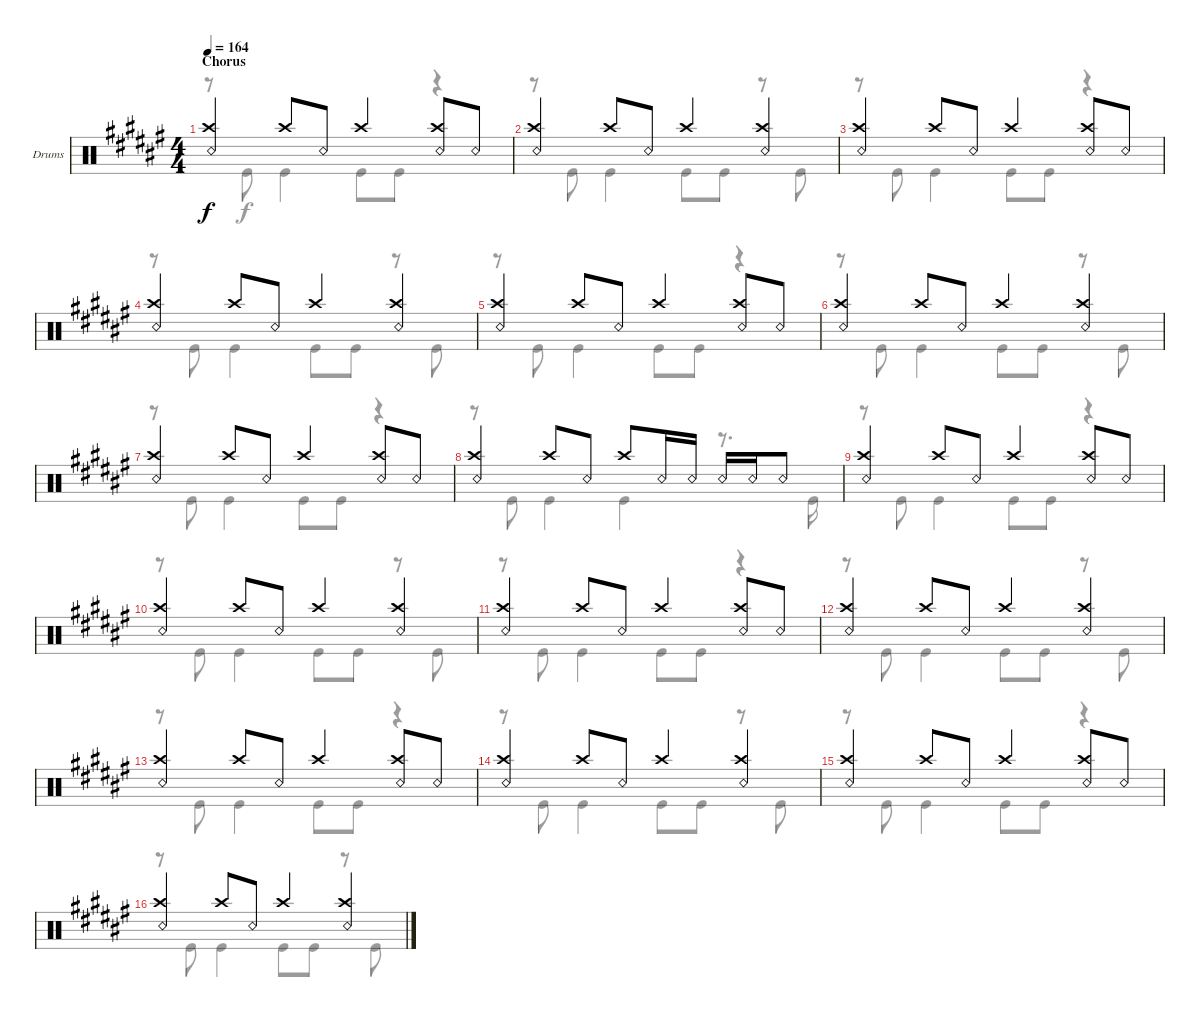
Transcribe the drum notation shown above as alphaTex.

\defaultSystemsLayout 4
\bracketExtendMode groupsimilarinstruments
\firstSystemTrackNameOrientation horizontal
\otherSystemsTrackNameOrientation horizontal
\track ("Drums" "Drums") {instrument percussion}
\staff {score}
\articulation defaults
\voice
\ts (4 4)
\section ("" "Chorus")
\tempo 164
\clef neutral
\ks f#
("Snare (rim shot)" "Crash high (hit)").4{dy f} "Crash high (hit)".8 "Snare (rim shot)".8 "Crash high (hit)".4 ("Snare (rim shot)" "Crash high (hit)").8 "Snare (rim shot)".8 |
("Snare (rim shot)" "Crash high (hit)").4 "Crash high (hit)".8 "Snare (rim shot)".8 "Crash high (hit)".4 ("Snare (rim shot)" "Crash high (hit)").4 |
("Snare (rim shot)" "Crash high (hit)").4 "Crash high (hit)".8 "Snare (rim shot)".8 "Crash high (hit)".4 ("Snare (rim shot)" "Crash high (hit)").8 "Snare (rim shot)".8 |
("Snare (rim shot)" "Crash high (hit)").4 "Crash high (hit)".8 "Snare (rim shot)".8 "Crash high (hit)".4 ("Snare (rim shot)" "Crash high (hit)").4 |
("Snare (rim shot)" "Crash high (hit)").4 "Crash high (hit)".8 "Snare (rim shot)".8 "Crash high (hit)".4 ("Snare (rim shot)" "Crash high (hit)").8 "Snare (rim shot)".8 |
("Snare (rim shot)" "Crash high (hit)").4 "Crash high (hit)".8 "Snare (rim shot)".8 "Crash high (hit)".4 ("Snare (rim shot)" "Crash high (hit)").4 |
("Snare (rim shot)" "Crash high (hit)").4 "Crash high (hit)".8 "Snare (rim shot)".8 "Crash high (hit)".4 ("Snare (rim shot)" "Crash high (hit)").8 "Snare (rim shot)".8 |
("Snare (rim shot)" "Crash high (hit)").4 "Crash high (hit)".8 "Snare (rim shot)".8 "Crash high (hit)".8 "Snare (rim shot)".16 "Snare (rim shot)".16 "Snare (rim shot)".16 "Snare (rim shot)".16 "Snare (rim shot)".8 |
("Snare (rim shot)" "Crash high (hit)").4 "Crash high (hit)".8 "Snare (rim shot)".8 "Crash high (hit)".4 ("Snare (rim shot)" "Crash high (hit)").8 "Snare (rim shot)".8 |
("Snare (rim shot)" "Crash high (hit)").4 "Crash high (hit)".8 "Snare (rim shot)".8 "Crash high (hit)".4 ("Snare (rim shot)" "Crash high (hit)").4 |
("Snare (rim shot)" "Crash high (hit)").4 "Crash high (hit)".8 "Snare (rim shot)".8 "Crash high (hit)".4 ("Snare (rim shot)" "Crash high (hit)").8 "Snare (rim shot)".8 |
("Snare (rim shot)" "Crash high (hit)").4 "Crash high (hit)".8 "Snare (rim shot)".8 "Crash high (hit)".4 ("Snare (rim shot)" "Crash high (hit)").4 |
("Snare (rim shot)" "Crash high (hit)").4 "Crash high (hit)".8 "Snare (rim shot)".8 "Crash high (hit)".4 ("Snare (rim shot)" "Crash high (hit)").8 "Snare (rim shot)".8 |
("Snare (rim shot)" "Crash high (hit)").4 "Crash high (hit)".8 "Snare (rim shot)".8 "Crash high (hit)".4 ("Snare (rim shot)" "Crash high (hit)").4 |
("Snare (rim shot)" "Crash high (hit)").4 "Crash high (hit)".8 "Snare (rim shot)".8 "Crash high (hit)".4 ("Snare (rim shot)" "Crash high (hit)").8 "Snare (rim shot)".8 |
("Snare (rim shot)" "Crash high (hit)").4 "Crash high (hit)".8 "Snare (rim shot)".8 "Crash high (hit)".4 ("Snare (rim shot)" "Crash high (hit)").4
\voice
\clef neutral
\ottava regular
\simile none
\ks f#
r.8{dy f} "Kick (hit)".8 "Kick (hit)".4 "Kick (hit)".8 "Kick (hit)".8 r.4 |
r.8 "Kick (hit)".8 "Kick (hit)".4 "Kick (hit)".8 "Kick (hit)".8 r.8 "Kick (hit)".8 |
r.8 "Kick (hit)".8 "Kick (hit)".4 "Kick (hit)".8 "Kick (hit)".8 r.4 |
r.8 "Kick (hit)".8 "Kick (hit)".4 "Kick (hit)".8 "Kick (hit)".8 r.8 "Kick (hit)".8 |
r.8 "Kick (hit)".8 "Kick (hit)".4 "Kick (hit)".8 "Kick (hit)".8 r.4 |
r.8 "Kick (hit)".8 "Kick (hit)".4 "Kick (hit)".8 "Kick (hit)".8 r.8 "Kick (hit)".8 |
r.8 "Kick (hit)".8 "Kick (hit)".4 "Kick (hit)".8 "Kick (hit)".8 r.4 |
r.8 "Kick (hit)".8 "Kick (hit)".4 "Kick (hit)".4 r.8{d} "Kick (hit)".16 |
r.8 "Kick (hit)".8 "Kick (hit)".4 "Kick (hit)".8 "Kick (hit)".8 r.4 |
r.8 "Kick (hit)".8 "Kick (hit)".4 "Kick (hit)".8 "Kick (hit)".8 r.8 "Kick (hit)".8 |
r.8 "Kick (hit)".8 "Kick (hit)".4 "Kick (hit)".8 "Kick (hit)".8 r.4 |
r.8 "Kick (hit)".8 "Kick (hit)".4 "Kick (hit)".8 "Kick (hit)".8 r.8 "Kick (hit)".8 |
r.8 "Kick (hit)".8 "Kick (hit)".4 "Kick (hit)".8 "Kick (hit)".8 r.4 |
r.8 "Kick (hit)".8 "Kick (hit)".4 "Kick (hit)".8 "Kick (hit)".8 r.8 "Kick (hit)".8 |
r.8 "Kick (hit)".8 "Kick (hit)".4 "Kick (hit)".8 "Kick (hit)".8 r.4 |
r.8 "Kick (hit)".8 "Kick (hit)".4 "Kick (hit)".8 "Kick (hit)".8 r.8 "Kick (hit)".8
